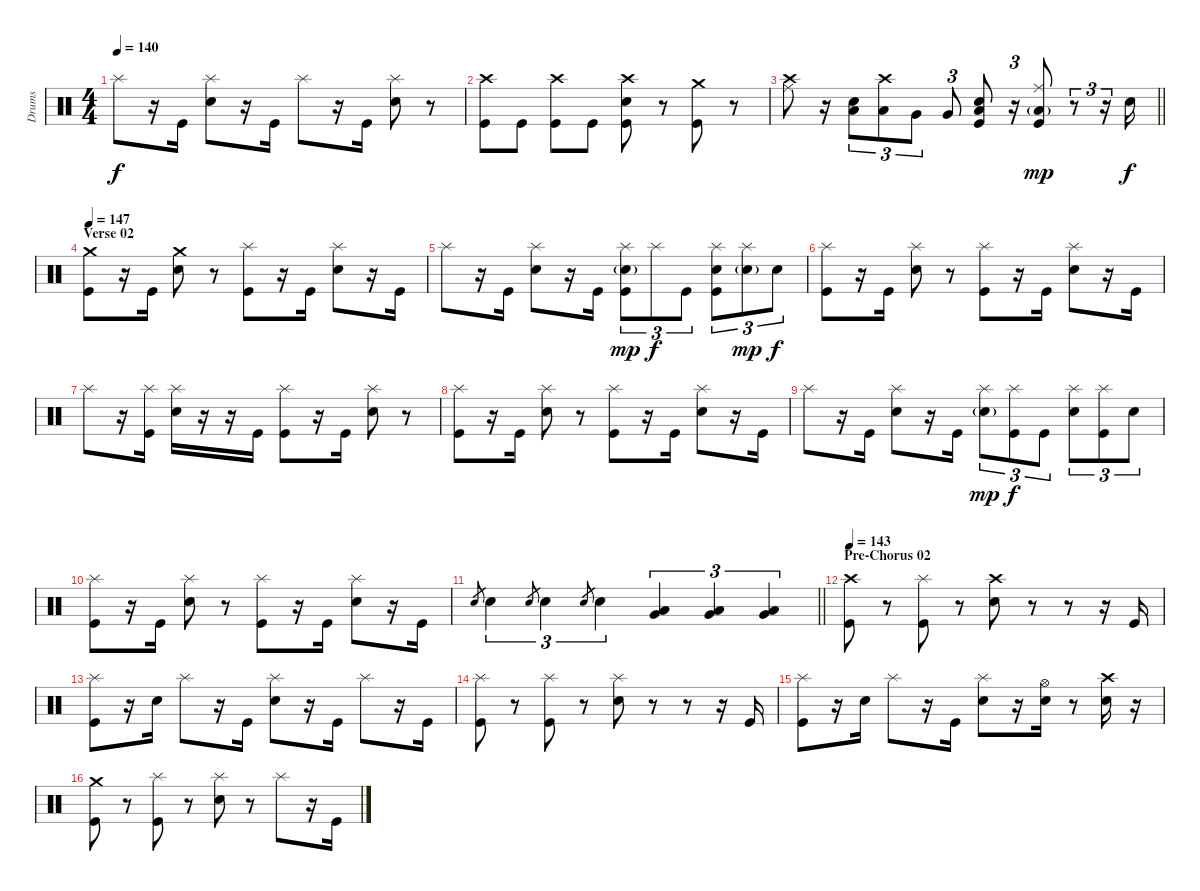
\track ("Drums" "Drums") {instrument percussion}
\staff {score}
\articulation defaults
\ts (4 4)
\tempo 140
\clef neutral
\ks c "Splash (hit)".8{dy f}
r.16 "Kick (hit)".16 ("Splash (hit)" "Electric Snare (hit)").8 r.16 "Kick (hit)".16 "Splash (hit)".8 r.16 "Kick (hit)".16 ("Splash (hit)" "Electric Snare (hit)").8 r.8 |
("Crash high (hit)" "Kick (hit)").8 "Kick (hit)".8 ("Crash high (hit)" "Kick (hit)").8 "Kick (hit)".8 ("Crash high (hit)" "Electric Snare (hit)" "Kick (hit)").8 r.8 ("Crash medium (hit)" "Kick (hit)").8 r.8 |
\barLineRight lightlight
("Crash high (hit)" "Ride (middle)").8 r.16 ("Low Tom (hit)" "Electric Snare (hit)").8{tu (3 2)} ("Crash high (hit)" "Low Tom (hit)").8{tu (3 2)} "Very Low Tom (hit)".8{tu (3 2)} "Very Low Tom (hit)".8{tu (3 2)} ("Low Tom (hit)" "Snare (hit) 2" "Kick (hit)").8 r.16{tu (3 2)} ("Ride (middle)" "Low Floor Tom (hit)"{g} "Kick (hit)").8{dy mp} r.8{tu (3 2)} r.16{tu (3 2)} "Electric Snare (hit)".16{dy f} |
\section ("" "Verse 02")
\tempo 147
("Crash medium (hit)" "Kick (hit)").8 r.16 "Kick (hit)".16 ("Crash medium (hit)" "Electric Snare (hit)").8 r.8 ("Splash (hit)" "Kick (hit)").8 r.16 "Kick (hit)".16 ("Splash (hit)" "Electric Snare (hit)").8 r.16 "Kick (hit)".16 |
"Splash (hit)".8 r.16 "Kick (hit)".16 ("Splash (hit)" "Electric Snare (hit)").8 r.16 "Kick (hit)".16 ("Splash (hit)" "Electric Snare (hit)"{g} "Kick (hit)").8{tu (3 2) dy mp} "Splash (hit)".8{tu (3 2) dy f} "Kick (hit)".8{tu (3 2)} ("Splash (hit)" "Electric Snare (hit)" "Kick (hit)").8{tu (3 2)} ("Splash (hit)" "Electric Snare (hit)"{g}).8{tu (3 2) dy mp} "Electric Snare (hit)".8{tu (3 2) dy f} |
("Splash (hit)" "Kick (hit)").8 r.16 "Kick (hit)".16 ("Splash (hit)" "Electric Snare (hit)").8 r.8 ("Splash (hit)" "Kick (hit)").8 r.16 "Kick (hit)".16 ("Splash (hit)" "Electric Snare (hit)").8 r.16 "Kick (hit)".16 |
"Splash (hit)".8 r.16 ("Splash (hit)" "Kick (hit)").16 ("Splash (hit)" "Electric Snare (hit)").16 r.16 r.16 "Kick (hit)".16 ("Splash (hit)" "Kick (hit)").8 r.16 "Kick (hit)".16 ("Splash (hit)" "Electric Snare (hit)").8 r.8 |
("Splash (hit)" "Kick (hit)").8 r.16 "Kick (hit)".16 ("Splash (hit)" "Electric Snare (hit)").8 r.8 ("Splash (hit)" "Kick (hit)").8 r.16 "Kick (hit)".16 ("Splash (hit)" "Electric Snare (hit)").8 r.16 "Kick (hit)".16 |
"Splash (hit)".8 r.16 "Kick (hit)".16 ("Splash (hit)" "Electric Snare (hit)").8 r.16 "Kick (hit)".16 ("Splash (hit)" "Electric Snare (hit)"{g}).8{tu (3 2) dy mp} ("Splash (hit)" "Kick (hit)").8{tu (3 2) dy f} "Kick (hit)".8{tu (3 2)} ("Splash (hit)" "Electric Snare (hit)").8{tu (3 2)} ("Splash (hit)" "Kick (hit)").8{tu (3 2)} "Electric Snare (hit)".8{tu (3 2)} |
("Splash (hit)" "Kick (hit)").8 r.16 "Kick (hit)".16 ("Splash (hit)" "Electric Snare (hit)").8 r.8 ("Splash (hit)" "Kick (hit)").8 r.16 "Kick (hit)".16 ("Splash (hit)" "Electric Snare (hit)").8 r.16 "Kick (hit)".16 |
\barLineRight lightlight "Electric Snare (hit)".8{gr} "Electric Snare (hit)".4{tu (3 2)} "Electric Snare (hit)".8{gr} "Electric Snare (hit)".4{tu (3 2)} "Electric Snare (hit)".8{gr} "Electric Snare (hit)".4{tu (3 2)}
("Low Tom (hit)" "Very Low Tom (hit)").4{tu (3 2)} ("Low Tom (hit)" "Very Low Tom (hit)").4{tu (3 2)} ("Low Tom (hit)" "Very Low Tom (hit)").4{tu (3 2)} |
\section ("" "Pre-Chorus 02")
\tempo 143
("Crash high (hit)" "Kick (hit)").8 r.8 ("Splash (hit)" "Kick (hit)").8 r.8 ("Crash high (hit)" "Electric Snare (hit)").8 r.8 r.8 r.16 "Kick (hit)".16 |
("Splash (hit)" "Kick (hit)").8 r.16 "Electric Snare (hit)".16 "Splash (hit)".8 r.16 "Kick (hit)".16 ("Splash (hit)" "Electric Snare (hit)").8 r.16 "Kick (hit)".16 "Splash (hit)".8 r.16 "Kick (hit)".16 |
("Splash (hit)" "Kick (hit)").8 r.8 ("Splash (hit)" "Kick (hit)").8 r.8 ("Splash (hit)" "Electric Snare (hit)").8 r.8 r.8 r.16 "Kick (hit)".16 |
("Splash (hit)" "Kick (hit)").8 r.16 "Electric Snare (hit)".16 "Splash (hit)".8 r.16 "Kick (hit)".16 ("Splash (hit)" "Electric Snare (hit)").8 r.16 ("Hi-Hat (open)" "Electric Snare (hit)").16 r.8 ("Crash high (hit)" "Electric Snare (hit)").16 r.16 |
("Crash medium (hit)" "Kick (hit)").8 r.8 ("Splash (hit)" "Kick (hit)").8 r.8 ("Splash (hit)" "Electric Snare (hit)").8 r.8 "Splash (hit)".8 r.16 "Kick (hit)".16
